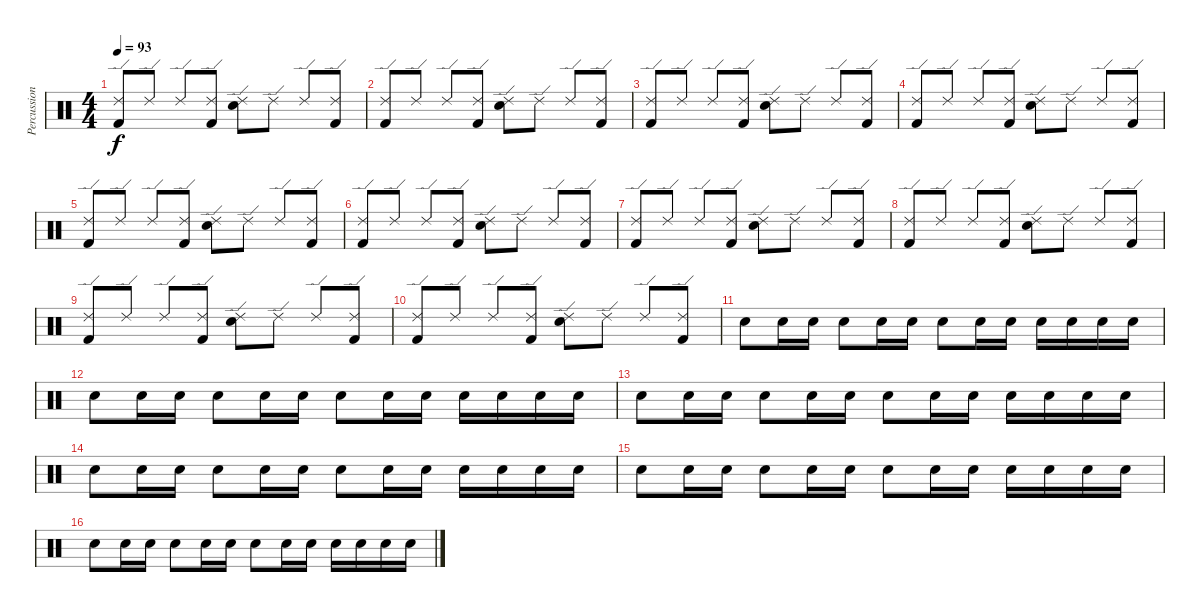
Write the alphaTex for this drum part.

\track ("Percussion" "Percussion") {instrument percussion}
\staff {score}
\articulation defaults
\ts (4 4)
\tempo 93
\clef neutral
\ks c
("Ride (edge) 2" "Kick (hit) 2").8{dy f} "Ride (edge) 2".8 "Ride (edge) 2".8 ("Ride (edge) 2" "Kick (hit) 2").8 ("Ride (edge) 2" "Snare (hit) 2").8 "Ride (edge) 2".8 "Ride (edge) 2".8 ("Ride (edge) 2" "Kick (hit) 2").8 |
("Ride (edge) 2" "Kick (hit) 2").8 "Ride (edge) 2".8 "Ride (edge) 2".8 ("Ride (edge) 2" "Kick (hit) 2").8 ("Ride (edge) 2" "Snare (hit) 2").8 "Ride (edge) 2".8 "Ride (edge) 2".8 ("Ride (edge) 2" "Kick (hit) 2").8 |
("Ride (edge) 2" "Kick (hit) 2").8 "Ride (edge) 2".8 "Ride (edge) 2".8 ("Ride (edge) 2" "Kick (hit) 2").8 ("Ride (edge) 2" "Snare (hit) 2").8 "Ride (edge) 2".8 "Ride (edge) 2".8 ("Ride (edge) 2" "Kick (hit) 2").8 |
("Ride (edge) 2" "Kick (hit) 2").8 "Ride (edge) 2".8 "Ride (edge) 2".8 ("Ride (edge) 2" "Kick (hit) 2").8 ("Ride (edge) 2" "Snare (hit) 2").8 "Ride (edge) 2".8 "Ride (edge) 2".8 ("Ride (edge) 2" "Kick (hit) 2").8 |
("Ride (edge) 2" "Kick (hit) 2").8 "Ride (edge) 2".8 "Ride (edge) 2".8 ("Ride (edge) 2" "Kick (hit) 2").8 ("Ride (edge) 2" "Snare (hit) 2").8 "Ride (edge) 2".8 "Ride (edge) 2".8 ("Ride (edge) 2" "Kick (hit) 2").8 |
("Ride (edge) 2" "Kick (hit) 2").8 "Ride (edge) 2".8 "Ride (edge) 2".8 ("Ride (edge) 2" "Kick (hit) 2").8 ("Ride (edge) 2" "Snare (hit) 2").8 "Ride (edge) 2".8 "Ride (edge) 2".8 ("Ride (edge) 2" "Kick (hit) 2").8 |
("Ride (edge) 2" "Kick (hit) 2").8 "Ride (edge) 2".8 "Ride (edge) 2".8 ("Ride (edge) 2" "Kick (hit) 2").8 ("Ride (edge) 2" "Snare (hit) 2").8 "Ride (edge) 2".8 "Ride (edge) 2".8 ("Ride (edge) 2" "Kick (hit) 2").8 |
("Ride (edge) 2" "Kick (hit) 2").8 "Ride (edge) 2".8 "Ride (edge) 2".8 ("Ride (edge) 2" "Kick (hit) 2").8 ("Ride (edge) 2" "Snare (hit) 2").8 "Ride (edge) 2".8 "Ride (edge) 2".8 ("Ride (edge) 2" "Kick (hit) 2").8 |
("Ride (edge) 2" "Kick (hit) 2").8 "Ride (edge) 2".8 "Ride (edge) 2".8 ("Ride (edge) 2" "Kick (hit) 2").8 ("Ride (edge) 2" "Snare (hit) 2").8 "Ride (edge) 2".8 "Ride (edge) 2".8 ("Ride (edge) 2" "Kick (hit) 2").8 |
("Ride (edge) 2" "Kick (hit) 2").8 "Ride (edge) 2".8 "Ride (edge) 2".8 ("Ride (edge) 2" "Kick (hit) 2").8 ("Ride (edge) 2" "Snare (hit) 2").8 "Ride (edge) 2".8 "Ride (edge) 2".8 ("Ride (edge) 2" "Kick (hit) 2").8 |
"Snare (hit) 2".8 "Snare (hit) 2".16 "Snare (hit) 2".16 "Snare (hit) 2".8 "Snare (hit) 2".16 "Snare (hit) 2".16 "Snare (hit) 2".8 "Snare (hit) 2".16 "Snare (hit) 2".16 "Snare (hit) 2".16 "Snare (hit) 2".16 "Snare (hit) 2".16 "Snare (hit) 2".16 |
"Snare (hit) 2".8 "Snare (hit) 2".16 "Snare (hit) 2".16 "Snare (hit) 2".8 "Snare (hit) 2".16 "Snare (hit) 2".16 "Snare (hit) 2".8 "Snare (hit) 2".16 "Snare (hit) 2".16 "Snare (hit) 2".16 "Snare (hit) 2".16 "Snare (hit) 2".16 "Snare (hit) 2".16 |
"Snare (hit) 2".8 "Snare (hit) 2".16 "Snare (hit) 2".16 "Snare (hit) 2".8 "Snare (hit) 2".16 "Snare (hit) 2".16 "Snare (hit) 2".8 "Snare (hit) 2".16 "Snare (hit) 2".16 "Snare (hit) 2".16 "Snare (hit) 2".16 "Snare (hit) 2".16 "Snare (hit) 2".16 |
"Snare (hit) 2".8 "Snare (hit) 2".16 "Snare (hit) 2".16 "Snare (hit) 2".8 "Snare (hit) 2".16 "Snare (hit) 2".16 "Snare (hit) 2".8 "Snare (hit) 2".16 "Snare (hit) 2".16 "Snare (hit) 2".16 "Snare (hit) 2".16 "Snare (hit) 2".16 "Snare (hit) 2".16 |
"Snare (hit) 2".8 "Snare (hit) 2".16 "Snare (hit) 2".16 "Snare (hit) 2".8 "Snare (hit) 2".16 "Snare (hit) 2".16 "Snare (hit) 2".8 "Snare (hit) 2".16 "Snare (hit) 2".16 "Snare (hit) 2".16 "Snare (hit) 2".16 "Snare (hit) 2".16 "Snare (hit) 2".16 |
"Snare (hit) 2".8 "Snare (hit) 2".16 "Snare (hit) 2".16 "Snare (hit) 2".8 "Snare (hit) 2".16 "Snare (hit) 2".16 "Snare (hit) 2".8 "Snare (hit) 2".16 "Snare (hit) 2".16 "Snare (hit) 2".16 "Snare (hit) 2".16 "Snare (hit) 2".16 "Snare (hit) 2".16
